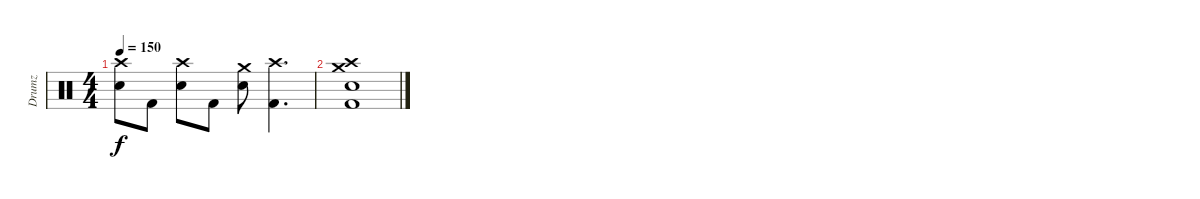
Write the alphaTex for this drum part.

\track ("Drumz" "Drumz") {instrument percussion}
\staff {score}
\articulation defaults
\ts (4 4)
\tempo 150
\clef neutral
\ks c
("Crash high (hit)" "Electric Snare (hit)").8{dy f} "Kick (hit) 2".8 ("Crash high (hit)" "Electric Snare (hit)").8 "Kick (hit) 2".8 ("Crash medium (hit)" "Electric Snare (hit)").8 ("Crash high (hit)" "Kick (hit) 2").4{d} |
("Crash medium (hit)" "Crash high (hit)" "Electric Snare (hit)" "Kick (hit) 2").1
